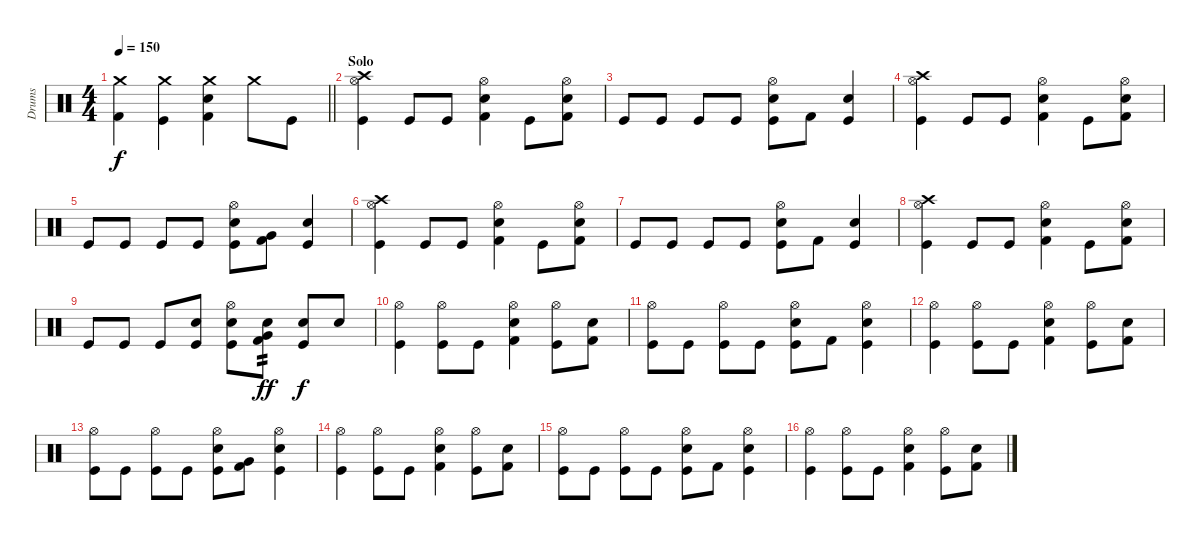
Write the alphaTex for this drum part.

\track ("Drums" "Drums") {instrument percussion}
\staff {score}
\articulation defaults
\ts (4 4)
\tempo 150
\clef neutral
\barLineRight lightlight
\ks c
("Crash medium (hit)" "Kick (hit) 2").4{dy f} ("Crash medium (hit)" "Kick (hit)").4 ("Crash medium (hit)" "Electric Snare (hit)" "Kick (hit) 2").4 "Crash medium (hit)".8 "Kick (hit)".8 |
\section ("" "Solo")
("Crash high (hit)" "Hi-Hat (open)" "Kick (hit)").4 "Kick (hit)".8 "Kick (hit)".8 ("Hi-Hat (open)" "Electric Snare (hit)" "Kick (hit) 2").4 "Kick (hit)".8 ("Hi-Hat (open)" "Electric Snare (hit)" "Kick (hit) 2").8 |
"Kick (hit)".8 "Kick (hit)".8 "Kick (hit)".8 "Kick (hit)".8 ("Hi-Hat (open)" "Electric Snare (hit)" "Kick (hit)").8 "Kick (hit) 2".8 ("Electric Snare (hit)" "Kick (hit)").4 |
("Crash high (hit)" "Hi-Hat (open)" "Kick (hit)").4 "Kick (hit)".8 "Kick (hit)".8 ("Hi-Hat (open)" "Electric Snare (hit)" "Kick (hit) 2").4 "Kick (hit)".8 ("Hi-Hat (open)" "Electric Snare (hit)" "Kick (hit) 2").8 |
"Kick (hit)".8 "Kick (hit)".8 "Kick (hit)".8 "Kick (hit)".8 ("Hi-Hat (open)" "Electric Snare (hit)" "Kick (hit)").8 ("Very Low Tom (hit)" "Kick (hit) 2").8 ("Electric Snare (hit)" "Kick (hit)").4 |
("Crash high (hit)" "Hi-Hat (open)" "Kick (hit)").4 "Kick (hit)".8 "Kick (hit)".8 ("Hi-Hat (open)" "Electric Snare (hit)" "Kick (hit) 2").4 "Kick (hit)".8 ("Hi-Hat (open)" "Electric Snare (hit)" "Kick (hit) 2").8 |
"Kick (hit)".8 "Kick (hit)".8 "Kick (hit)".8 "Kick (hit)".8 ("Hi-Hat (open)" "Electric Snare (hit)" "Kick (hit)").8 "Kick (hit) 2".8 ("Electric Snare (hit)" "Kick (hit)").4 |
("Crash high (hit)" "Hi-Hat (open)" "Kick (hit)").4 "Kick (hit)".8 "Kick (hit)".8 ("Hi-Hat (open)" "Electric Snare (hit)" "Kick (hit) 2").4 "Kick (hit)".8 ("Hi-Hat (open)" "Electric Snare (hit)" "Kick (hit) 2").8 |
"Kick (hit)".8 "Kick (hit)".8 "Kick (hit)".8 ("Electric Snare (hit)" "Kick (hit)").8 ("Hi-Hat (open)" "Electric Snare (hit)" "Kick (hit)").8 ("Very Low Tom (hit)" "Electric Snare (hit)" "Kick (hit) 2").8{tp 2 dy ff} ("Electric Snare (hit)" "Kick (hit)").8{dy f} "Electric Snare (hit)".8 |
("Hi-Hat (open)" "Kick (hit)").4 ("Hi-Hat (open)" "Kick (hit)").8 "Kick (hit)".8 ("Hi-Hat (open)" "Electric Snare (hit)" "Kick (hit) 2").4 ("Hi-Hat (open)" "Kick (hit)").8 ("Electric Snare (hit)" "Kick (hit) 2").8 |
("Hi-Hat (open)" "Kick (hit)").8 "Kick (hit)".8 ("Hi-Hat (open)" "Kick (hit)").8 "Kick (hit)".8 ("Hi-Hat (open)" "Electric Snare (hit)" "Kick (hit)").8 "Kick (hit) 2".8 ("Hi-Hat (open)" "Electric Snare (hit)" "Kick (hit)").4 |
("Hi-Hat (open)" "Kick (hit)").4 ("Hi-Hat (open)" "Kick (hit)").8 "Kick (hit)".8 ("Hi-Hat (open)" "Electric Snare (hit)" "Kick (hit) 2").4 ("Hi-Hat (open)" "Kick (hit)").8 ("Electric Snare (hit)" "Kick (hit) 2").8 |
("Hi-Hat (open)" "Kick (hit)").8 "Kick (hit)".8 ("Hi-Hat (open)" "Kick (hit)").8 "Kick (hit)".8 ("Hi-Hat (open)" "Electric Snare (hit)" "Kick (hit)").8 ("Very Low Tom (hit)" "Kick (hit) 2").8 ("Hi-Hat (open)" "Electric Snare (hit)" "Kick (hit)").4 |
("Hi-Hat (open)" "Kick (hit)").4 ("Hi-Hat (open)" "Kick (hit)").8 "Kick (hit)".8 ("Hi-Hat (open)" "Electric Snare (hit)" "Kick (hit) 2").4 ("Hi-Hat (open)" "Kick (hit)").8 ("Electric Snare (hit)" "Kick (hit) 2").8 |
("Hi-Hat (open)" "Kick (hit)").8 "Kick (hit)".8 ("Hi-Hat (open)" "Kick (hit)").8 "Kick (hit)".8 ("Hi-Hat (open)" "Electric Snare (hit)" "Kick (hit)").8 "Kick (hit) 2".8 ("Hi-Hat (open)" "Electric Snare (hit)" "Kick (hit)").4 |
("Hi-Hat (open)" "Kick (hit)").4 ("Hi-Hat (open)" "Kick (hit)").8 "Kick (hit)".8 ("Hi-Hat (open)" "Electric Snare (hit)" "Kick (hit) 2").4 ("Hi-Hat (open)" "Kick (hit)").8 ("Electric Snare (hit)" "Kick (hit) 2").8
